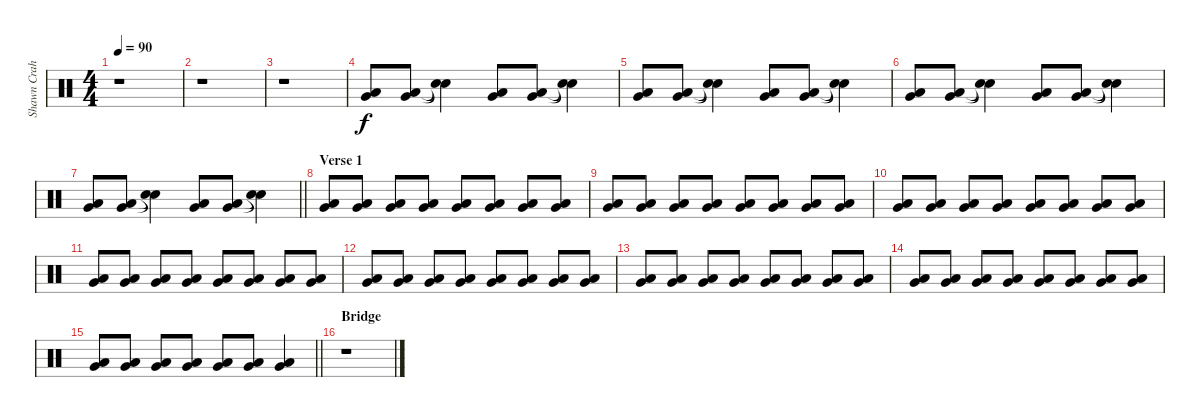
\track ("Shawn Crahan" "Shawn Crah") {instrument percussion}
\staff {score}
\articulation defaults
\ts (4 4)
\tempo 90
\clef neutral
\ks c
r.1{dy f} |
r.1 |
r.1 |
("Very Low Tom (hit)" "Low Floor Tom (hit)").8 ("Very Low Tom (hit)" "Low Floor Tom (hit)").8 ("Snare (hit)"{t} "Snare (hit)"{t}).4 ("Very Low Tom (hit)" "Low Floor Tom (hit)").8 ("Very Low Tom (hit)" "Low Floor Tom (hit)").8 ("Snare (hit)"{t} "Snare (hit)"{t}).4 |
("Very Low Tom (hit)" "Low Floor Tom (hit)").8 ("Very Low Tom (hit)" "Low Floor Tom (hit)").8 ("Snare (hit)"{t} "Snare (hit)"{t}).4 ("Very Low Tom (hit)" "Low Floor Tom (hit)").8 ("Very Low Tom (hit)" "Low Floor Tom (hit)").8 ("Snare (hit)"{t} "Snare (hit)"{t}).4 |
("Very Low Tom (hit)" "Low Floor Tom (hit)").8 ("Very Low Tom (hit)" "Low Floor Tom (hit)").8 ("Snare (hit)"{t} "Snare (hit)"{t}).4 ("Very Low Tom (hit)" "Low Floor Tom (hit)").8 ("Very Low Tom (hit)" "Low Floor Tom (hit)").8 ("Snare (hit)"{t} "Snare (hit)"{t}).4 |
\barLineRight lightlight
("Very Low Tom (hit)" "Low Floor Tom (hit)").8 ("Very Low Tom (hit)" "Low Floor Tom (hit)").8 ("Snare (hit)"{t} "Snare (hit)"{t}).4 ("Very Low Tom (hit)" "Low Floor Tom (hit)").8 ("Very Low Tom (hit)" "Low Floor Tom (hit)").8 ("Snare (hit)"{t} "Snare (hit)"{t}).4 |
\section ("" "Verse 1")
("Very Low Tom (hit)" "Low Floor Tom (hit)").8 ("Very Low Tom (hit)" "Low Floor Tom (hit)").8 ("Very Low Tom (hit)" "Low Floor Tom (hit)").8 ("Very Low Tom (hit)" "Low Floor Tom (hit)").8 ("Very Low Tom (hit)" "Low Floor Tom (hit)").8 ("Very Low Tom (hit)" "Low Floor Tom (hit)").8 ("Very Low Tom (hit)" "Low Floor Tom (hit)").8 ("Very Low Tom (hit)" "Low Floor Tom (hit)").8 |
("Very Low Tom (hit)" "Low Floor Tom (hit)").8 ("Very Low Tom (hit)" "Low Floor Tom (hit)").8 ("Very Low Tom (hit)" "Low Floor Tom (hit)").8 ("Very Low Tom (hit)" "Low Floor Tom (hit)").8 ("Very Low Tom (hit)" "Low Floor Tom (hit)").8 ("Very Low Tom (hit)" "Low Floor Tom (hit)").8 ("Very Low Tom (hit)" "Low Floor Tom (hit)").8 ("Very Low Tom (hit)" "Low Floor Tom (hit)").8 |
("Very Low Tom (hit)" "Low Floor Tom (hit)").8 ("Very Low Tom (hit)" "Low Floor Tom (hit)").8 ("Very Low Tom (hit)" "Low Floor Tom (hit)").8 ("Very Low Tom (hit)" "Low Floor Tom (hit)").8 ("Very Low Tom (hit)" "Low Floor Tom (hit)").8 ("Very Low Tom (hit)" "Low Floor Tom (hit)").8 ("Very Low Tom (hit)" "Low Floor Tom (hit)").8 ("Very Low Tom (hit)" "Low Floor Tom (hit)").8 |
("Very Low Tom (hit)" "Low Floor Tom (hit)").8 ("Very Low Tom (hit)" "Low Floor Tom (hit)").8 ("Very Low Tom (hit)" "Low Floor Tom (hit)").8 ("Very Low Tom (hit)" "Low Floor Tom (hit)").8 ("Very Low Tom (hit)" "Low Floor Tom (hit)").8 ("Very Low Tom (hit)" "Low Floor Tom (hit)").8 ("Very Low Tom (hit)" "Low Floor Tom (hit)").8 ("Very Low Tom (hit)" "Low Floor Tom (hit)").8 |
("Very Low Tom (hit)" "Low Floor Tom (hit)").8 ("Very Low Tom (hit)" "Low Floor Tom (hit)").8 ("Very Low Tom (hit)" "Low Floor Tom (hit)").8 ("Very Low Tom (hit)" "Low Floor Tom (hit)").8 ("Very Low Tom (hit)" "Low Floor Tom (hit)").8 ("Very Low Tom (hit)" "Low Floor Tom (hit)").8 ("Very Low Tom (hit)" "Low Floor Tom (hit)").8 ("Very Low Tom (hit)" "Low Floor Tom (hit)").8 |
("Very Low Tom (hit)" "Low Floor Tom (hit)").8 ("Very Low Tom (hit)" "Low Floor Tom (hit)").8 ("Very Low Tom (hit)" "Low Floor Tom (hit)").8 ("Very Low Tom (hit)" "Low Floor Tom (hit)").8 ("Very Low Tom (hit)" "Low Floor Tom (hit)").8 ("Very Low Tom (hit)" "Low Floor Tom (hit)").8 ("Very Low Tom (hit)" "Low Floor Tom (hit)").8 ("Very Low Tom (hit)" "Low Floor Tom (hit)").8 |
("Very Low Tom (hit)" "Low Floor Tom (hit)").8 ("Very Low Tom (hit)" "Low Floor Tom (hit)").8 ("Very Low Tom (hit)" "Low Floor Tom (hit)").8 ("Very Low Tom (hit)" "Low Floor Tom (hit)").8 ("Very Low Tom (hit)" "Low Floor Tom (hit)").8 ("Very Low Tom (hit)" "Low Floor Tom (hit)").8 ("Very Low Tom (hit)" "Low Floor Tom (hit)").8 ("Very Low Tom (hit)" "Low Floor Tom (hit)").8 |
\barLineRight lightlight
("Very Low Tom (hit)" "Low Floor Tom (hit)").8 ("Very Low Tom (hit)" "Low Floor Tom (hit)").8 ("Very Low Tom (hit)" "Low Floor Tom (hit)").8 ("Very Low Tom (hit)" "Low Floor Tom (hit)").8 ("Very Low Tom (hit)" "Low Floor Tom (hit)").8 ("Very Low Tom (hit)" "Low Floor Tom (hit)").8 ("Very Low Tom (hit)" "Low Floor Tom (hit)").4 |
\section ("" "Bridge")
r.1
